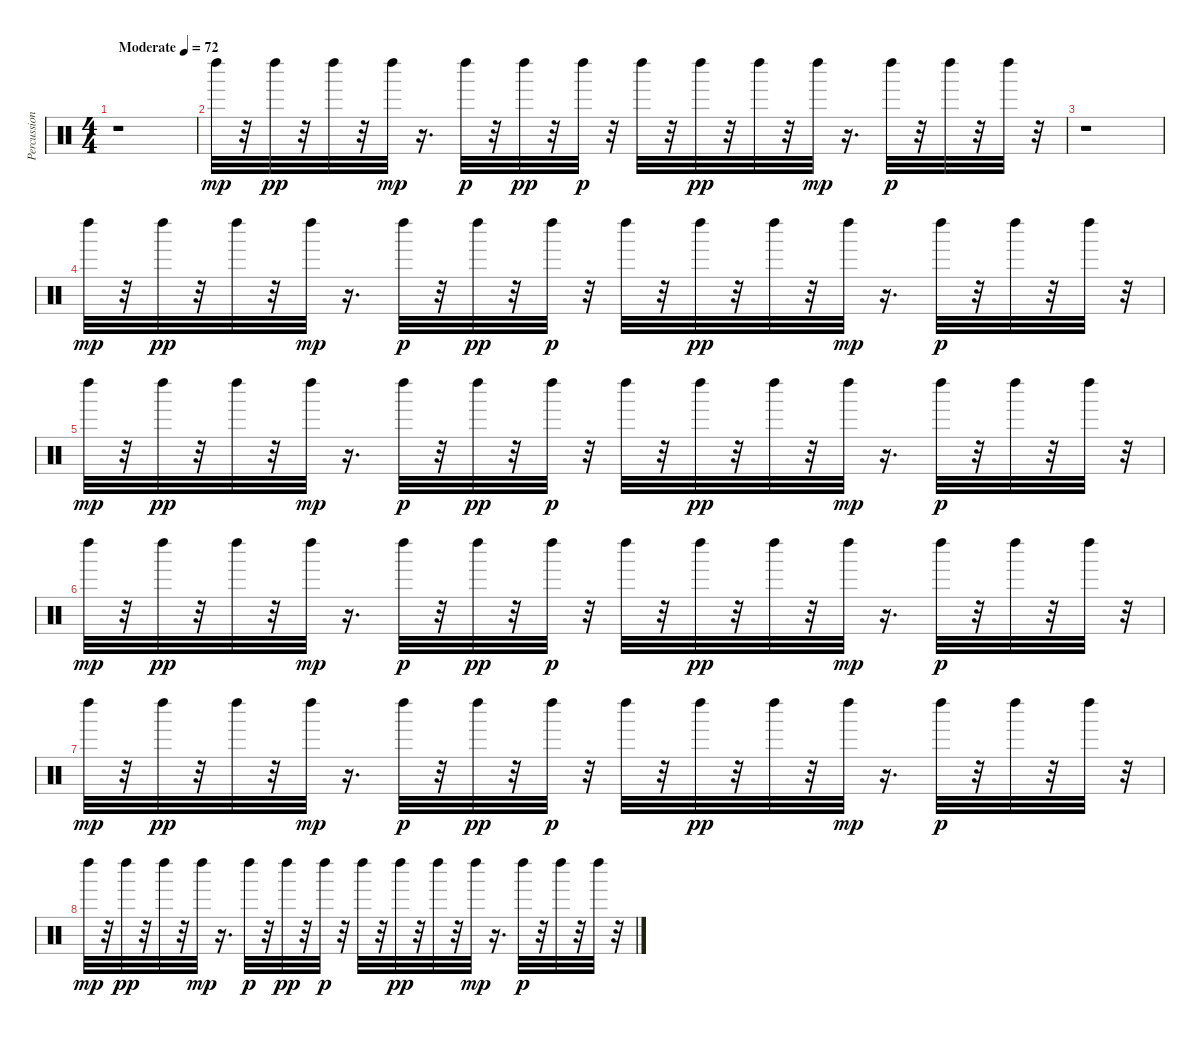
\track ("Percussion" "Percussion") {instrument percussion}
\staff {score}
\articulation defaults
\ts (4 4)
\tempo (72 "Moderate")
\clef neutral
\ks c
r.1{dy mp} |
"Left Maraca (hit)".32 r.32 "Left Maraca (hit)".32{dy pp} r.32 "Left Maraca (hit)".32 r.32 "Left Maraca (hit)".32{dy mp} r.16{d} "Left Maraca (hit)".32{dy p} r.32 "Left Maraca (hit)".32{dy pp} r.32 "Left Maraca (hit)".32{dy p} r.32 "Left Maraca (hit)".32 r.32 "Left Maraca (hit)".32{dy pp} r.32 "Left Maraca (hit)".32 r.32 "Left Maraca (hit)".32{dy mp} r.16{d} "Left Maraca (hit)".32{dy p} r.32 "Left Maraca (hit)".32 r.32 "Left Maraca (hit)".32 r.32 |
r.1 |
"Left Maraca (hit)".32{dy mp} r.32 "Left Maraca (hit)".32{dy pp} r.32 "Left Maraca (hit)".32 r.32 "Left Maraca (hit)".32{dy mp} r.16{d} "Left Maraca (hit)".32{dy p} r.32 "Left Maraca (hit)".32{dy pp} r.32 "Left Maraca (hit)".32{dy p} r.32 "Left Maraca (hit)".32 r.32 "Left Maraca (hit)".32{dy pp} r.32 "Left Maraca (hit)".32 r.32 "Left Maraca (hit)".32{dy mp} r.16{d} "Left Maraca (hit)".32{dy p} r.32 "Left Maraca (hit)".32 r.32 "Left Maraca (hit)".32 r.32 |
"Left Maraca (hit)".32{dy mp} r.32 "Left Maraca (hit)".32{dy pp} r.32 "Left Maraca (hit)".32 r.32 "Left Maraca (hit)".32{dy mp} r.16{d} "Left Maraca (hit)".32{dy p} r.32 "Left Maraca (hit)".32{dy pp} r.32 "Left Maraca (hit)".32{dy p} r.32 "Left Maraca (hit)".32 r.32 "Left Maraca (hit)".32{dy pp} r.32 "Left Maraca (hit)".32 r.32 "Left Maraca (hit)".32{dy mp} r.16{d} "Left Maraca (hit)".32{dy p} r.32 "Left Maraca (hit)".32 r.32 "Left Maraca (hit)".32 r.32 |
"Left Maraca (hit)".32{dy mp} r.32 "Left Maraca (hit)".32{dy pp} r.32 "Left Maraca (hit)".32 r.32 "Left Maraca (hit)".32{dy mp} r.16{d} "Left Maraca (hit)".32{dy p} r.32 "Left Maraca (hit)".32{dy pp} r.32 "Left Maraca (hit)".32{dy p} r.32 "Left Maraca (hit)".32 r.32 "Left Maraca (hit)".32{dy pp} r.32 "Left Maraca (hit)".32 r.32 "Left Maraca (hit)".32{dy mp} r.16{d} "Left Maraca (hit)".32{dy p} r.32 "Left Maraca (hit)".32 r.32 "Left Maraca (hit)".32 r.32 |
"Left Maraca (hit)".32{dy mp} r.32 "Left Maraca (hit)".32{dy pp} r.32 "Left Maraca (hit)".32 r.32 "Left Maraca (hit)".32{dy mp} r.16{d} "Left Maraca (hit)".32{dy p} r.32 "Left Maraca (hit)".32{dy pp} r.32 "Left Maraca (hit)".32{dy p} r.32 "Left Maraca (hit)".32 r.32 "Left Maraca (hit)".32{dy pp} r.32 "Left Maraca (hit)".32 r.32 "Left Maraca (hit)".32{dy mp} r.16{d} "Left Maraca (hit)".32{dy p} r.32 "Left Maraca (hit)".32 r.32 "Left Maraca (hit)".32 r.32 |
"Left Maraca (hit)".32{dy mp} r.32 "Left Maraca (hit)".32{dy pp} r.32 "Left Maraca (hit)".32 r.32 "Left Maraca (hit)".32{dy mp} r.16{d} "Left Maraca (hit)".32{dy p} r.32 "Left Maraca (hit)".32{dy pp} r.32 "Left Maraca (hit)".32{dy p} r.32 "Left Maraca (hit)".32 r.32 "Left Maraca (hit)".32{dy pp} r.32 "Left Maraca (hit)".32 r.32 "Left Maraca (hit)".32{dy mp} r.16{d} "Left Maraca (hit)".32{dy p} r.32 "Left Maraca (hit)".32 r.32 "Left Maraca (hit)".32 r.32
